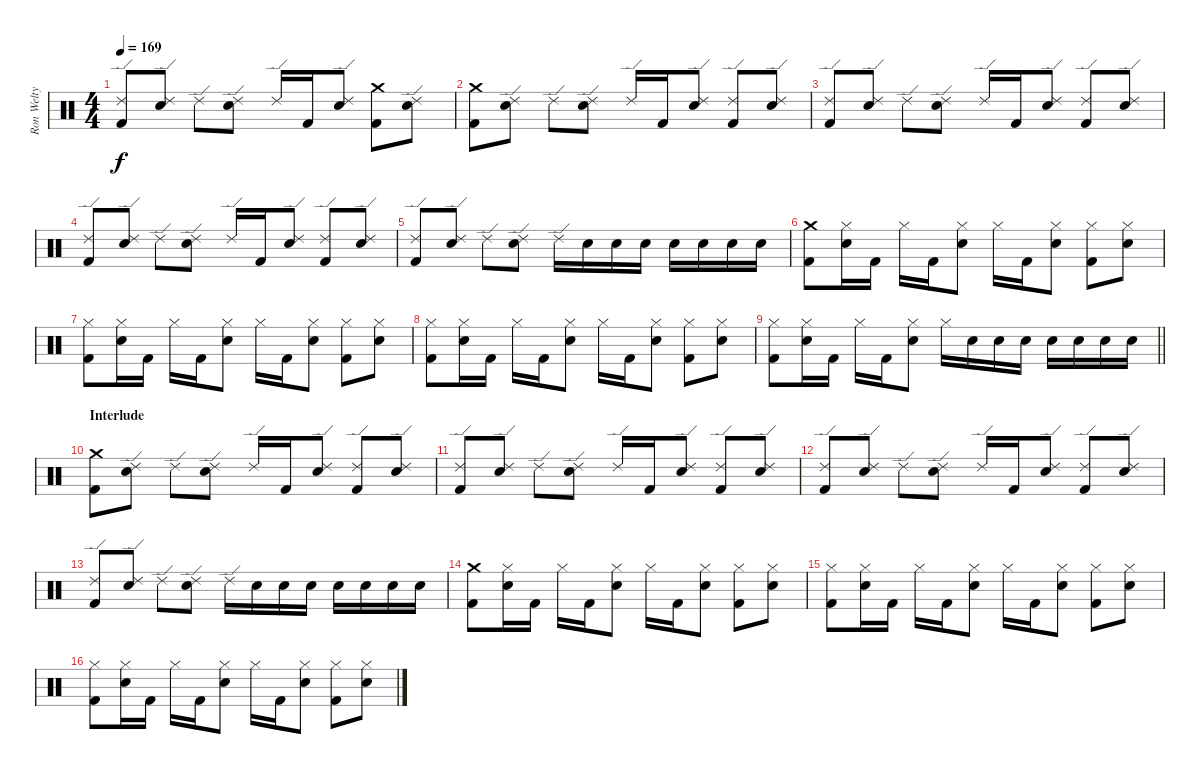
\track ("Ron Welty - Drums" "Ron Welty ") {instrument percussion}
\staff {score}
\articulation defaults
\ts (4 4)
\tempo 169
\clef neutral
\ks c
("Ride (edge) 2" "Kick (hit) 2").8{dy f} ("Ride (edge) 2" "Electric Snare (hit)").8 "Ride (edge) 2".8 ("Ride (edge) 2" "Electric Snare (hit)").8 "Ride (edge) 2".16 "Kick (hit) 2".16 ("Ride (edge) 2" "Electric Snare (hit)").8 ("Crash medium (hit)" "Kick (hit) 2").8 ("Ride (edge) 2" "Electric Snare (hit)").8 |
("Crash medium (hit)" "Kick (hit) 2").8 ("Ride (edge) 2" "Electric Snare (hit)").8 "Ride (edge) 2".8 ("Ride (edge) 2" "Electric Snare (hit)").8 "Ride (edge) 2".16 "Kick (hit) 2".16 ("Ride (edge) 2" "Electric Snare (hit)").8 ("Ride (edge) 2" "Kick (hit) 2").8 ("Ride (edge) 2" "Electric Snare (hit)").8 |
("Ride (edge) 2" "Kick (hit) 2").8 ("Ride (edge) 2" "Electric Snare (hit)").8 "Ride (edge) 2".8 ("Ride (edge) 2" "Electric Snare (hit)").8 "Ride (edge) 2".16 "Kick (hit) 2".16 ("Ride (edge) 2" "Electric Snare (hit)").8 ("Ride (edge) 2" "Kick (hit) 2").8 ("Ride (edge) 2" "Electric Snare (hit)").8 |
("Ride (edge) 2" "Kick (hit) 2").8 ("Ride (edge) 2" "Electric Snare (hit)").8 "Ride (edge) 2".8 ("Ride (edge) 2" "Electric Snare (hit)").8 "Ride (edge) 2".16 "Kick (hit) 2".16 ("Ride (edge) 2" "Electric Snare (hit)").8 ("Ride (edge) 2" "Kick (hit) 2").8 ("Ride (edge) 2" "Electric Snare (hit)").8 |
("Ride (edge) 2" "Kick (hit) 2").8 ("Ride (edge) 2" "Electric Snare (hit)").8 "Ride (edge) 2".8 ("Ride (edge) 2" "Electric Snare (hit)").8 "Ride (edge) 2".16 "Electric Snare (hit)".16 "Electric Snare (hit)".16 "Electric Snare (hit)".16 "Electric Snare (hit)".16 "Electric Snare (hit)".16 "Electric Snare (hit)".16 "Electric Snare (hit)".16 |
("Crash medium (hit)" "Kick (hit) 2").8 ("Hi-Hat (closed)" "Electric Snare (hit)").16 "Kick (hit) 2".16 "Hi-Hat (closed)".16 "Kick (hit) 2".16 ("Hi-Hat (closed)" "Electric Snare (hit)").8 "Hi-Hat (closed)".16 "Kick (hit) 2".16 ("Hi-Hat (closed)" "Electric Snare (hit)").8 ("Hi-Hat (closed)" "Kick (hit) 2").8 ("Hi-Hat (closed)" "Electric Snare (hit)").8 |
("Hi-Hat (closed)" "Kick (hit) 2").8 ("Hi-Hat (closed)" "Electric Snare (hit)").16 "Kick (hit) 2".16 "Hi-Hat (closed)".16 "Kick (hit) 2".16 ("Hi-Hat (closed)" "Electric Snare (hit)").8 "Hi-Hat (closed)".16 "Kick (hit) 2".16 ("Hi-Hat (closed)" "Electric Snare (hit)").8 ("Hi-Hat (closed)" "Kick (hit) 2").8 ("Hi-Hat (closed)" "Electric Snare (hit)").8 |
("Hi-Hat (closed)" "Kick (hit) 2").8 ("Hi-Hat (closed)" "Electric Snare (hit)").16 "Kick (hit) 2".16 "Hi-Hat (closed)".16 "Kick (hit) 2".16 ("Hi-Hat (closed)" "Electric Snare (hit)").8 "Hi-Hat (closed)".16 "Kick (hit) 2".16 ("Hi-Hat (closed)" "Electric Snare (hit)").8 ("Hi-Hat (closed)" "Kick (hit) 2").8 ("Hi-Hat (closed)" "Electric Snare (hit)").8 |
\barLineRight lightlight
("Hi-Hat (closed)" "Kick (hit) 2").8 ("Hi-Hat (closed)" "Electric Snare (hit)").16 "Kick (hit) 2".16 "Hi-Hat (closed)".16 "Kick (hit) 2".16 ("Hi-Hat (closed)" "Electric Snare (hit)").8 "Hi-Hat (closed)".16 "Electric Snare (hit)".16 "Electric Snare (hit)".16 "Electric Snare (hit)".16 "Electric Snare (hit)".16 "Electric Snare (hit)".16 "Electric Snare (hit)".16 "Electric Snare (hit)".16 |
\section ("" "Interlude")
("Crash medium (hit)" "Kick (hit) 2").8 ("Ride (edge) 2" "Electric Snare (hit)").8 "Ride (edge) 2".8 ("Ride (edge) 2" "Electric Snare (hit)").8 "Ride (edge) 2".16 "Kick (hit) 2".16 ("Ride (edge) 2" "Electric Snare (hit)").8 ("Ride (edge) 2" "Kick (hit) 2").8 ("Ride (edge) 2" "Electric Snare (hit)").8 |
("Ride (edge) 2" "Kick (hit) 2").8 ("Ride (edge) 2" "Electric Snare (hit)").8 "Ride (edge) 2".8 ("Ride (edge) 2" "Electric Snare (hit)").8 "Ride (edge) 2".16 "Kick (hit) 2".16 ("Ride (edge) 2" "Electric Snare (hit)").8 ("Ride (edge) 2" "Kick (hit) 2").8 ("Ride (edge) 2" "Electric Snare (hit)").8 |
("Ride (edge) 2" "Kick (hit) 2").8 ("Ride (edge) 2" "Electric Snare (hit)").8 "Ride (edge) 2".8 ("Ride (edge) 2" "Electric Snare (hit)").8 "Ride (edge) 2".16 "Kick (hit) 2".16 ("Ride (edge) 2" "Electric Snare (hit)").8 ("Ride (edge) 2" "Kick (hit) 2").8 ("Ride (edge) 2" "Electric Snare (hit)").8 |
("Ride (edge) 2" "Kick (hit) 2").8 ("Ride (edge) 2" "Electric Snare (hit)").8 "Ride (edge) 2".8 ("Ride (edge) 2" "Electric Snare (hit)").8 "Ride (edge) 2".16 "Electric Snare (hit)".16 "Electric Snare (hit)".16 "Electric Snare (hit)".16 "Electric Snare (hit)".16 "Electric Snare (hit)".16 "Electric Snare (hit)".16 "Electric Snare (hit)".16 |
("Crash medium (hit)" "Kick (hit) 2").8 ("Hi-Hat (closed)" "Electric Snare (hit)").16 "Kick (hit) 2".16 "Hi-Hat (closed)".16 "Kick (hit) 2".16 ("Hi-Hat (closed)" "Electric Snare (hit)").8 "Hi-Hat (closed)".16 "Kick (hit) 2".16 ("Hi-Hat (closed)" "Electric Snare (hit)").8 ("Hi-Hat (closed)" "Kick (hit) 2").8 ("Hi-Hat (closed)" "Electric Snare (hit)").8 |
("Hi-Hat (closed)" "Kick (hit) 2").8 ("Hi-Hat (closed)" "Electric Snare (hit)").16 "Kick (hit) 2".16 "Hi-Hat (closed)".16 "Kick (hit) 2".16 ("Hi-Hat (closed)" "Electric Snare (hit)").8 "Hi-Hat (closed)".16 "Kick (hit) 2".16 ("Hi-Hat (closed)" "Electric Snare (hit)").8 ("Hi-Hat (closed)" "Kick (hit) 2").8 ("Hi-Hat (closed)" "Electric Snare (hit)").8 |
("Hi-Hat (closed)" "Kick (hit) 2").8 ("Hi-Hat (closed)" "Electric Snare (hit)").16 "Kick (hit) 2".16 "Hi-Hat (closed)".16 "Kick (hit) 2".16 ("Hi-Hat (closed)" "Electric Snare (hit)").8 "Hi-Hat (closed)".16 "Kick (hit) 2".16 ("Hi-Hat (closed)" "Electric Snare (hit)").8 ("Hi-Hat (closed)" "Kick (hit) 2").8 ("Hi-Hat (closed)" "Electric Snare (hit)").8
